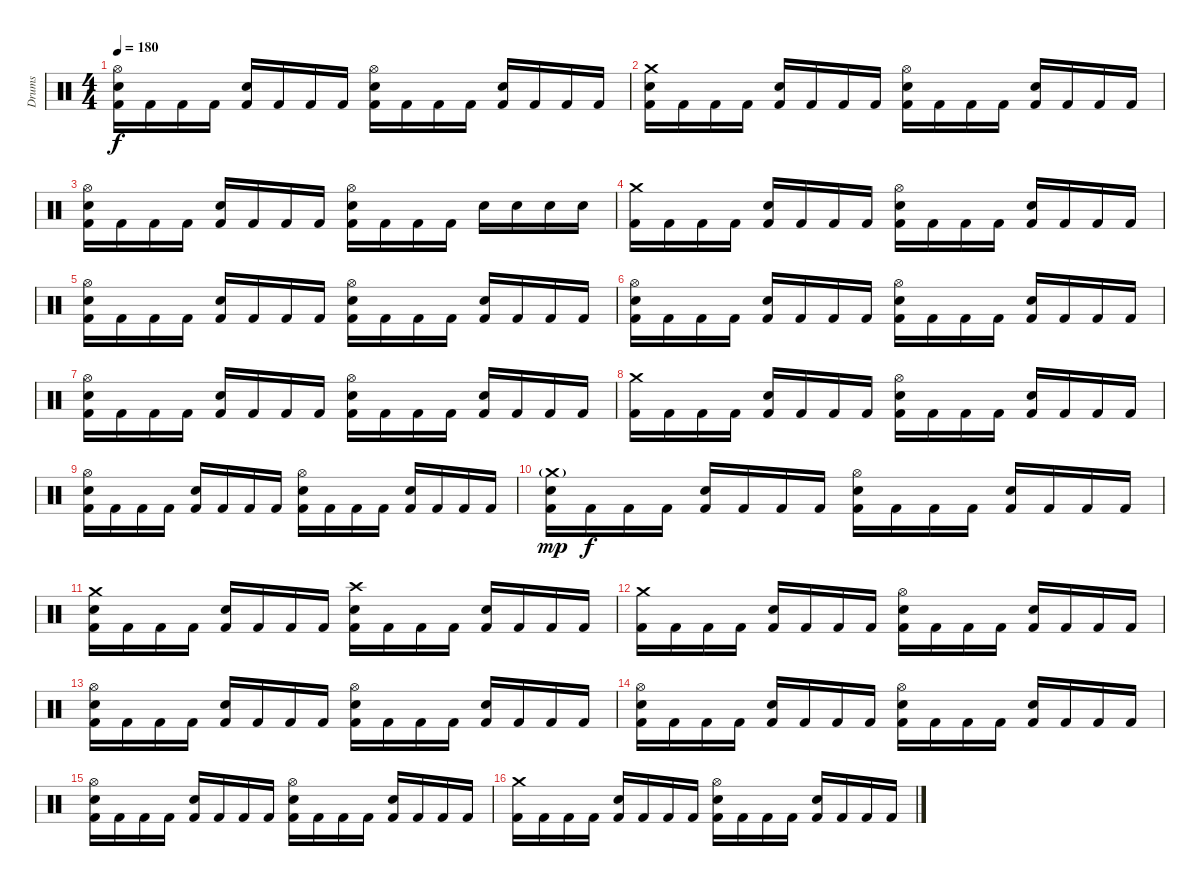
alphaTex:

\track ("Drums" "Drums") {instrument percussion}
\staff {score}
\articulation defaults
\ts (4 4)
\tempo 180
\clef neutral
\ks c
("Hi-Hat (open)" "Electric Snare (hit)" "Kick (hit) 2").16{dy f} "Kick (hit) 2".16 "Kick (hit) 2".16 "Kick (hit) 2".16 ("Electric Snare (hit)" "Kick (hit) 2").16 "Kick (hit) 2".16 "Kick (hit) 2".16 "Kick (hit) 2".16 ("Hi-Hat (open)" "Electric Snare (hit)" "Kick (hit) 2").16 "Kick (hit) 2".16 "Kick (hit) 2".16 "Kick (hit) 2".16 ("Electric Snare (hit)" "Kick (hit) 2").16 "Kick (hit) 2".16 "Kick (hit) 2".16 "Kick (hit) 2".16 |
("Crash medium (hit)" "Electric Snare (hit)" "Kick (hit) 2").16 "Kick (hit) 2".16 "Kick (hit) 2".16 "Kick (hit) 2".16 ("Electric Snare (hit)" "Kick (hit) 2").16 "Kick (hit) 2".16 "Kick (hit) 2".16 "Kick (hit) 2".16 ("Hi-Hat (open)" "Electric Snare (hit)" "Kick (hit) 2").16 "Kick (hit) 2".16 "Kick (hit) 2".16 "Kick (hit) 2".16 ("Electric Snare (hit)" "Kick (hit) 2").16 "Kick (hit) 2".16 "Kick (hit) 2".16 "Kick (hit) 2".16 |
("Hi-Hat (open)" "Electric Snare (hit)" "Kick (hit) 2").16 "Kick (hit) 2".16 "Kick (hit) 2".16 "Kick (hit) 2".16 ("Electric Snare (hit)" "Kick (hit) 2").16 "Kick (hit) 2".16 "Kick (hit) 2".16 "Kick (hit) 2".16 ("Hi-Hat (open)" "Electric Snare (hit)" "Kick (hit) 2").16 "Kick (hit) 2".16 "Kick (hit) 2".16 "Kick (hit) 2".16 "Electric Snare (hit)".16 "Electric Snare (hit)".16 "Electric Snare (hit)".16 "Electric Snare (hit)".16 |
("Crash medium (hit)" "Kick (hit) 2").16 "Kick (hit) 2".16 "Kick (hit) 2".16 "Kick (hit) 2".16 ("Electric Snare (hit)" "Kick (hit) 2").16 "Kick (hit) 2".16 "Kick (hit) 2".16 "Kick (hit) 2".16 ("Hi-Hat (open)" "Electric Snare (hit)" "Kick (hit) 2").16 "Kick (hit) 2".16 "Kick (hit) 2".16 "Kick (hit) 2".16 ("Electric Snare (hit)" "Kick (hit) 2").16 "Kick (hit) 2".16 "Kick (hit) 2".16 "Kick (hit) 2".16 |
("Hi-Hat (open)" "Electric Snare (hit)" "Kick (hit) 2").16 "Kick (hit) 2".16 "Kick (hit) 2".16 "Kick (hit) 2".16 ("Electric Snare (hit)" "Kick (hit) 2").16 "Kick (hit) 2".16 "Kick (hit) 2".16 "Kick (hit) 2".16 ("Hi-Hat (open)" "Electric Snare (hit)" "Kick (hit) 2").16 "Kick (hit) 2".16 "Kick (hit) 2".16 "Kick (hit) 2".16 ("Electric Snare (hit)" "Kick (hit) 2").16 "Kick (hit) 2".16 "Kick (hit) 2".16 "Kick (hit) 2".16 |
("Hi-Hat (open)" "Electric Snare (hit)" "Kick (hit) 2").16 "Kick (hit) 2".16 "Kick (hit) 2".16 "Kick (hit) 2".16 ("Electric Snare (hit)" "Kick (hit) 2").16 "Kick (hit) 2".16 "Kick (hit) 2".16 "Kick (hit) 2".16 ("Hi-Hat (open)" "Electric Snare (hit)" "Kick (hit) 2").16 "Kick (hit) 2".16 "Kick (hit) 2".16 "Kick (hit) 2".16 ("Electric Snare (hit)" "Kick (hit) 2").16 "Kick (hit) 2".16 "Kick (hit) 2".16 "Kick (hit) 2".16 |
("Hi-Hat (open)" "Electric Snare (hit)" "Kick (hit) 2").16 "Kick (hit) 2".16 "Kick (hit) 2".16 "Kick (hit) 2".16 ("Electric Snare (hit)" "Kick (hit) 2").16 "Kick (hit) 2".16 "Kick (hit) 2".16 "Kick (hit) 2".16 ("Hi-Hat (open)" "Electric Snare (hit)" "Kick (hit) 2").16 "Kick (hit) 2".16 "Kick (hit) 2".16 "Kick (hit) 2".16 ("Electric Snare (hit)" "Kick (hit) 2").16 "Kick (hit) 2".16 "Kick (hit) 2".16 "Kick (hit) 2".16 |
("Crash medium (hit)" "Kick (hit) 2").16 "Kick (hit) 2".16 "Kick (hit) 2".16 "Kick (hit) 2".16 ("Electric Snare (hit)" "Kick (hit) 2").16 "Kick (hit) 2".16 "Kick (hit) 2".16 "Kick (hit) 2".16 ("Hi-Hat (open)" "Electric Snare (hit)" "Kick (hit) 2").16 "Kick (hit) 2".16 "Kick (hit) 2".16 "Kick (hit) 2".16 ("Electric Snare (hit)" "Kick (hit) 2").16 "Kick (hit) 2".16 "Kick (hit) 2".16 "Kick (hit) 2".16 |
("Hi-Hat (open)" "Electric Snare (hit)" "Kick (hit) 2").16 "Kick (hit) 2".16 "Kick (hit) 2".16 "Kick (hit) 2".16 ("Electric Snare (hit)" "Kick (hit) 2").16 "Kick (hit) 2".16 "Kick (hit) 2".16 "Kick (hit) 2".16 ("Hi-Hat (open)" "Electric Snare (hit)" "Kick (hit) 2").16 "Kick (hit) 2".16 "Kick (hit) 2".16 "Kick (hit) 2".16 ("Electric Snare (hit)" "Kick (hit) 2").16 "Kick (hit) 2".16 "Kick (hit) 2".16 "Kick (hit) 2".16 |
("Crash medium (hit)"{g} "Electric Snare (hit)" "Kick (hit) 2").16{dy mp} "Kick (hit) 2".16{dy f} "Kick (hit) 2".16 "Kick (hit) 2".16 ("Electric Snare (hit)" "Kick (hit) 2").16 "Kick (hit) 2".16 "Kick (hit) 2".16 "Kick (hit) 2".16 ("Hi-Hat (open)" "Electric Snare (hit)" "Kick (hit) 2").16 "Kick (hit) 2".16 "Kick (hit) 2".16 "Kick (hit) 2".16 ("Electric Snare (hit)" "Kick (hit) 2").16 "Kick (hit) 2".16 "Kick (hit) 2".16 "Kick (hit) 2".16 |
("Crash medium (hit)" "Electric Snare (hit)" "Kick (hit) 2").16 "Kick (hit) 2".16 "Kick (hit) 2".16 "Kick (hit) 2".16 ("Electric Snare (hit)" "Kick (hit) 2").16 "Kick (hit) 2".16 "Kick (hit) 2".16 "Kick (hit) 2".16 ("Crash high (hit)" "Electric Snare (hit)" "Kick (hit) 2").16 "Kick (hit) 2".16 "Kick (hit) 2".16 "Kick (hit) 2".16 ("Electric Snare (hit)" "Kick (hit) 2").16 "Kick (hit) 2".16 "Kick (hit) 2".16 "Kick (hit) 2".16 |
("Crash medium (hit)" "Kick (hit) 2").16 "Kick (hit) 2".16 "Kick (hit) 2".16 "Kick (hit) 2".16 ("Electric Snare (hit)" "Kick (hit) 2").16 "Kick (hit) 2".16 "Kick (hit) 2".16 "Kick (hit) 2".16 ("Hi-Hat (open)" "Electric Snare (hit)" "Kick (hit) 2").16 "Kick (hit) 2".16 "Kick (hit) 2".16 "Kick (hit) 2".16 ("Electric Snare (hit)" "Kick (hit) 2").16 "Kick (hit) 2".16 "Kick (hit) 2".16 "Kick (hit) 2".16 |
("Hi-Hat (open)" "Electric Snare (hit)" "Kick (hit) 2").16 "Kick (hit) 2".16 "Kick (hit) 2".16 "Kick (hit) 2".16 ("Electric Snare (hit)" "Kick (hit) 2").16 "Kick (hit) 2".16 "Kick (hit) 2".16 "Kick (hit) 2".16 ("Hi-Hat (open)" "Electric Snare (hit)" "Kick (hit) 2").16 "Kick (hit) 2".16 "Kick (hit) 2".16 "Kick (hit) 2".16 ("Electric Snare (hit)" "Kick (hit) 2").16 "Kick (hit) 2".16 "Kick (hit) 2".16 "Kick (hit) 2".16 |
("Hi-Hat (open)" "Electric Snare (hit)" "Kick (hit) 2").16 "Kick (hit) 2".16 "Kick (hit) 2".16 "Kick (hit) 2".16 ("Electric Snare (hit)" "Kick (hit) 2").16 "Kick (hit) 2".16 "Kick (hit) 2".16 "Kick (hit) 2".16 ("Hi-Hat (open)" "Electric Snare (hit)" "Kick (hit) 2").16 "Kick (hit) 2".16 "Kick (hit) 2".16 "Kick (hit) 2".16 ("Electric Snare (hit)" "Kick (hit) 2").16 "Kick (hit) 2".16 "Kick (hit) 2".16 "Kick (hit) 2".16 |
("Hi-Hat (open)" "Electric Snare (hit)" "Kick (hit) 2").16 "Kick (hit) 2".16 "Kick (hit) 2".16 "Kick (hit) 2".16 ("Electric Snare (hit)" "Kick (hit) 2").16 "Kick (hit) 2".16 "Kick (hit) 2".16 "Kick (hit) 2".16 ("Hi-Hat (open)" "Electric Snare (hit)" "Kick (hit) 2").16 "Kick (hit) 2".16 "Kick (hit) 2".16 "Kick (hit) 2".16 ("Electric Snare (hit)" "Kick (hit) 2").16 "Kick (hit) 2".16 "Kick (hit) 2".16 "Kick (hit) 2".16 |
("Crash medium (hit)" "Kick (hit) 2").16 "Kick (hit) 2".16 "Kick (hit) 2".16 "Kick (hit) 2".16 ("Electric Snare (hit)" "Kick (hit) 2").16 "Kick (hit) 2".16 "Kick (hit) 2".16 "Kick (hit) 2".16 ("Hi-Hat (open)" "Electric Snare (hit)" "Kick (hit) 2").16 "Kick (hit) 2".16 "Kick (hit) 2".16 "Kick (hit) 2".16 ("Electric Snare (hit)" "Kick (hit) 2").16 "Kick (hit) 2".16 "Kick (hit) 2".16 "Kick (hit) 2".16
